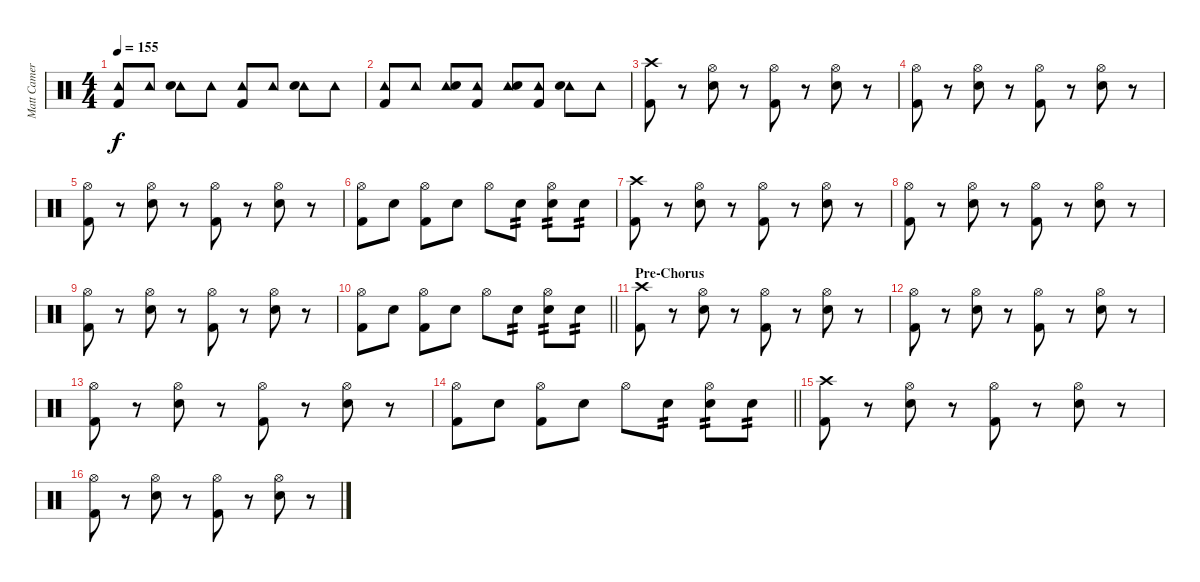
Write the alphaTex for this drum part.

\track ("Matt Cameron" "Matt Camer") {instrument percussion}
\staff {score}
\articulation defaults
\ts (4 4)
\tempo 155
\clef neutral
\ks c
("Tambourine (hit)" "Kick (hit) 2").8{dy f} "Tambourine (hit)".8 ("Tambourine (hit)" "Snare (hit) 2").8 "Tambourine (hit)".8 ("Tambourine (hit)" "Kick (hit) 2").8 "Tambourine (hit)".8 ("Tambourine (hit)" "Snare (hit) 2").8 "Tambourine (hit)".8 |
("Tambourine (hit)" "Kick (hit) 2").8 "Tambourine (hit)".8 ("Tambourine (hit)" "Snare (hit) 2").8 ("Tambourine (hit)" "Kick (hit) 2").8 ("Tambourine (hit)" "Snare (hit) 2").8 ("Tambourine (hit)" "Kick (hit) 2").8 ("Tambourine (hit)" "Snare (hit) 2").8 "Tambourine (hit)".8 |
("Crash high (hit)" "Kick (hit) 2").8 r.8 ("Hi-Hat (open)" "Snare (hit) 2").8 r.8 ("Hi-Hat (open)" "Kick (hit) 2").8 r.8 ("Hi-Hat (open)" "Snare (hit) 2").8 r.8 |
("Hi-Hat (open)" "Kick (hit) 2").8 r.8 ("Hi-Hat (open)" "Snare (hit) 2").8 r.8 ("Hi-Hat (open)" "Kick (hit) 2").8 r.8 ("Hi-Hat (open)" "Snare (hit) 2").8 r.8 |
("Hi-Hat (open)" "Kick (hit) 2").8 r.8 ("Hi-Hat (open)" "Snare (hit) 2").8 r.8 ("Hi-Hat (open)" "Kick (hit) 2").8 r.8 ("Hi-Hat (open)" "Snare (hit) 2").8 r.8 |
("Hi-Hat (open)" "Kick (hit) 2").8 "Snare (hit) 2".8 ("Hi-Hat (open)" "Kick (hit) 2").8 "Snare (hit) 2".8 "Hi-Hat (open)".8 "Snare (hit) 2".8{tp 2} ("Hi-Hat (open)" "Snare (hit) 2").8{tp 2} "Snare (hit) 2".8{tp 2} |
("Crash high (hit)" "Kick (hit) 2").8 r.8 ("Hi-Hat (open)" "Snare (hit) 2").8 r.8 ("Hi-Hat (open)" "Kick (hit) 2").8 r.8 ("Hi-Hat (open)" "Snare (hit) 2").8 r.8 |
("Hi-Hat (open)" "Kick (hit) 2").8 r.8 ("Hi-Hat (open)" "Snare (hit) 2").8 r.8 ("Hi-Hat (open)" "Kick (hit) 2").8 r.8 ("Hi-Hat (open)" "Snare (hit) 2").8 r.8 |
("Hi-Hat (open)" "Kick (hit) 2").8 r.8 ("Hi-Hat (open)" "Snare (hit) 2").8 r.8 ("Hi-Hat (open)" "Kick (hit) 2").8 r.8 ("Hi-Hat (open)" "Snare (hit) 2").8 r.8 |
\barLineRight lightlight
("Hi-Hat (open)" "Kick (hit) 2").8 "Snare (hit) 2".8 ("Hi-Hat (open)" "Kick (hit) 2").8 "Snare (hit) 2".8 "Hi-Hat (open)".8 "Snare (hit) 2".8{tp 2} ("Hi-Hat (open)" "Snare (hit) 2").8{tp 2} "Snare (hit) 2".8{tp 2} |
\section ("" "Pre-Chorus")
("Crash high (hit)" "Kick (hit) 2").8 r.8 ("Hi-Hat (open)" "Snare (hit) 2").8 r.8 ("Hi-Hat (open)" "Kick (hit) 2").8 r.8 ("Hi-Hat (open)" "Snare (hit) 2").8 r.8 |
("Hi-Hat (open)" "Kick (hit) 2").8 r.8 ("Hi-Hat (open)" "Snare (hit) 2").8 r.8 ("Hi-Hat (open)" "Kick (hit) 2").8 r.8 ("Hi-Hat (open)" "Snare (hit) 2").8 r.8 |
("Hi-Hat (open)" "Kick (hit) 2").8 r.8 ("Hi-Hat (open)" "Snare (hit) 2").8 r.8 ("Hi-Hat (open)" "Kick (hit) 2").8 r.8 ("Hi-Hat (open)" "Snare (hit) 2").8 r.8 |
\barLineRight lightlight
("Hi-Hat (open)" "Kick (hit) 2").8 "Snare (hit) 2".8 ("Hi-Hat (open)" "Kick (hit) 2").8 "Snare (hit) 2".8 "Hi-Hat (open)".8 "Snare (hit) 2".8{tp 2} ("Hi-Hat (open)" "Snare (hit) 2").8{tp 2} "Snare (hit) 2".8{tp 2} |
("Crash high (hit)" "Kick (hit) 2").8 r.8 ("Hi-Hat (open)" "Snare (hit) 2").8 r.8 ("Hi-Hat (open)" "Kick (hit) 2").8 r.8 ("Hi-Hat (open)" "Snare (hit) 2").8 r.8 |
("Hi-Hat (open)" "Kick (hit) 2").8 r.8 ("Hi-Hat (open)" "Snare (hit) 2").8 r.8 ("Hi-Hat (open)" "Kick (hit) 2").8 r.8 ("Hi-Hat (open)" "Snare (hit) 2").8 r.8
